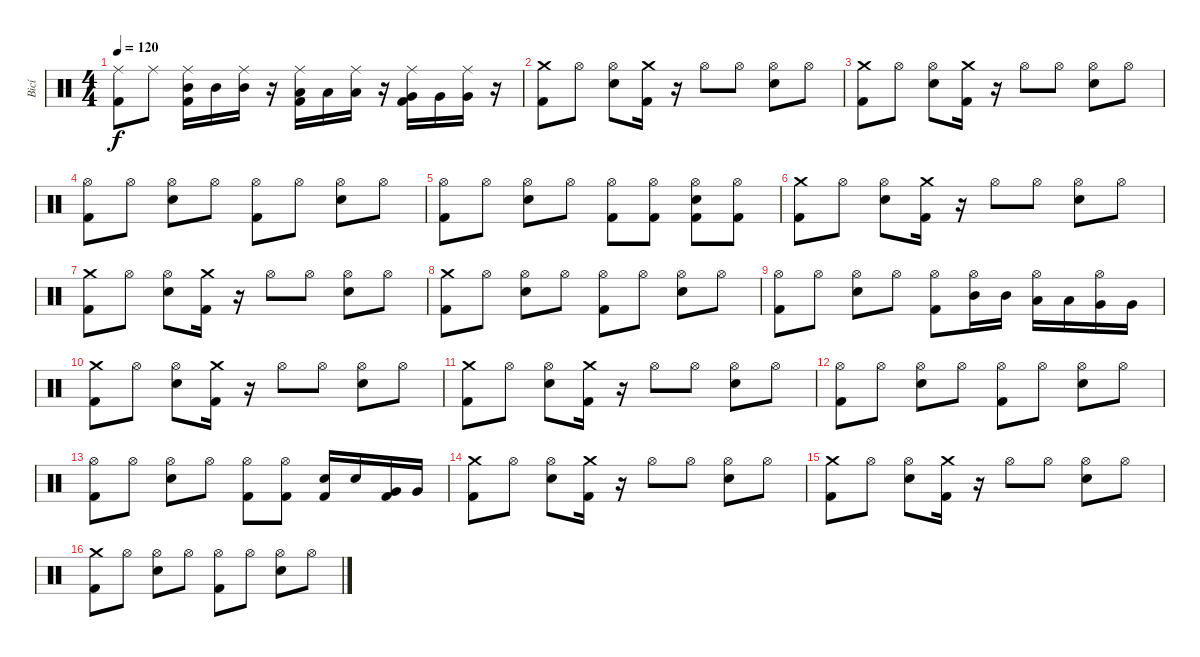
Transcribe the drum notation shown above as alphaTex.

\track ("Bicí" "Bicí") {instrument percussion}
\staff {score}
\articulation defaults
\ts (4 4)
\tempo 120
\clef neutral
\ks c
("Ride (middle)" "Kick (hit) 2").8{dy f} "Ride (middle)".8 ("Mid Tom (hit)" "Ride (middle)" "Kick (hit) 2").16 "Mid Tom (hit)".16 ("Mid Tom (hit)" "Ride (middle)").16 r.16 ("Low Tom (hit)" "Ride (middle)" "Kick (hit) 2").16 "Low Tom (hit)".16 ("Low Tom (hit)" "Ride (middle)").16 r.16 ("Very Low Tom (hit)" "Ride (middle)" "Kick (hit) 2").16 "Very Low Tom (hit)".16 ("Very Low Tom (hit)" "Ride (middle)").16 r.16 |
("Crash medium (hit)" "Kick (hit) 2").8 "Hi-Hat (open)".8 ("Hi-Hat (open)" "Electric Snare (hit)").8 ("Crash medium (hit)" "Kick (hit) 2").16 r.16 "Hi-Hat (open)".8 "Hi-Hat (open)".8 ("Hi-Hat (open)" "Electric Snare (hit)").8 "Hi-Hat (open)".8 |
("Crash medium (hit)" "Kick (hit) 2").8 "Hi-Hat (open)".8 ("Hi-Hat (open)" "Electric Snare (hit)").8 ("Crash medium (hit)" "Kick (hit) 2").16 r.16 "Hi-Hat (open)".8 "Hi-Hat (open)".8 ("Hi-Hat (open)" "Electric Snare (hit)").8 "Hi-Hat (open)".8 |
("Hi-Hat (open)" "Kick (hit) 2").8 "Hi-Hat (open)".8 ("Hi-Hat (open)" "Electric Snare (hit)").8 "Hi-Hat (open)".8 ("Hi-Hat (open)" "Kick (hit) 2").8 "Hi-Hat (open)".8 ("Hi-Hat (open)" "Electric Snare (hit)").8 "Hi-Hat (open)".8 |
("Hi-Hat (open)" "Kick (hit) 2").8 "Hi-Hat (open)".8 ("Hi-Hat (open)" "Electric Snare (hit)").8 "Hi-Hat (open)".8 ("Hi-Hat (open)" "Kick (hit) 2").8 ("Hi-Hat (open)" "Kick (hit) 2").8 ("Hi-Hat (open)" "Electric Snare (hit)" "Kick (hit) 2").8 ("Hi-Hat (open)" "Kick (hit) 2").8 |
("Crash medium (hit)" "Kick (hit) 2").8 "Hi-Hat (open)".8 ("Hi-Hat (open)" "Electric Snare (hit)").8 ("Crash medium (hit)" "Kick (hit) 2").16 r.16 "Hi-Hat (open)".8 "Hi-Hat (open)".8 ("Hi-Hat (open)" "Electric Snare (hit)").8 "Hi-Hat (open)".8 |
("Crash medium (hit)" "Kick (hit) 2").8 "Hi-Hat (open)".8 ("Hi-Hat (open)" "Electric Snare (hit)").8 ("Crash medium (hit)" "Kick (hit) 2").16 r.16 "Hi-Hat (open)".8 "Hi-Hat (open)".8 ("Hi-Hat (open)" "Electric Snare (hit)").8 "Hi-Hat (open)".8 |
("Crash medium (hit)" "Kick (hit) 2").8 "Hi-Hat (open)".8 ("Hi-Hat (open)" "Electric Snare (hit)").8 "Hi-Hat (open)".8 ("Hi-Hat (open)" "Kick (hit) 2").8 "Hi-Hat (open)".8 ("Hi-Hat (open)" "Electric Snare (hit)").8 "Hi-Hat (open)".8 |
("Hi-Hat (open)" "Kick (hit) 2").8 "Hi-Hat (open)".8 ("Hi-Hat (open)" "Electric Snare (hit)").8 "Hi-Hat (open)".8 ("Hi-Hat (open)" "Kick (hit) 2").8 ("Mid Tom (hit)" "Hi-Hat (open)").16 "Mid Tom (hit)".16 ("Low Tom (hit)" "Hi-Hat (open)").16 "Low Tom (hit)".16 ("Very Low Tom (hit)" "Hi-Hat (open)").16 "Very Low Tom (hit)".16 |
("Crash medium (hit)" "Kick (hit) 2").8 "Hi-Hat (open)".8 ("Hi-Hat (open)" "Electric Snare (hit)").8 ("Crash medium (hit)" "Kick (hit) 2").16 r.16 "Hi-Hat (open)".8 "Hi-Hat (open)".8 ("Hi-Hat (open)" "Electric Snare (hit)").8 "Hi-Hat (open)".8 |
("Crash medium (hit)" "Kick (hit) 2").8 "Hi-Hat (open)".8 ("Hi-Hat (open)" "Electric Snare (hit)").8 ("Crash medium (hit)" "Kick (hit) 2").16 r.16 "Hi-Hat (open)".8 "Hi-Hat (open)".8 ("Hi-Hat (open)" "Electric Snare (hit)").8 "Hi-Hat (open)".8 |
("Hi-Hat (open)" "Kick (hit) 2").8 "Hi-Hat (open)".8 ("Hi-Hat (open)" "Electric Snare (hit)").8 "Hi-Hat (open)".8 ("Hi-Hat (open)" "Kick (hit) 2").8 "Hi-Hat (open)".8 ("Hi-Hat (open)" "Electric Snare (hit)").8 "Hi-Hat (open)".8 |
("Hi-Hat (open)" "Kick (hit) 2").8 "Hi-Hat (open)".8 ("Hi-Hat (open)" "Electric Snare (hit)").8 "Hi-Hat (open)".8 ("Hi-Hat (open)" "Kick (hit) 2").8 ("Hi-Hat (open)" "Kick (hit) 2").8 ("Electric Snare (hit)" "Kick (hit) 2").16 "Electric Snare (hit)".16 ("Very Low Tom (hit)" "Kick (hit) 2").16 "Very Low Tom (hit)".16 |
("Crash medium (hit)" "Kick (hit) 2").8 "Hi-Hat (open)".8 ("Hi-Hat (open)" "Electric Snare (hit)").8 ("Crash medium (hit)" "Kick (hit) 2").16 r.16 "Hi-Hat (open)".8 "Hi-Hat (open)".8 ("Hi-Hat (open)" "Electric Snare (hit)").8 "Hi-Hat (open)".8 |
("Crash medium (hit)" "Kick (hit) 2").8 "Hi-Hat (open)".8 ("Hi-Hat (open)" "Electric Snare (hit)").8 ("Crash medium (hit)" "Kick (hit) 2").16 r.16 "Hi-Hat (open)".8 "Hi-Hat (open)".8 ("Hi-Hat (open)" "Electric Snare (hit)").8 "Hi-Hat (open)".8 |
("Crash medium (hit)" "Kick (hit) 2").8 "Hi-Hat (open)".8 ("Hi-Hat (open)" "Electric Snare (hit)").8 "Hi-Hat (open)".8 ("Hi-Hat (open)" "Kick (hit) 2").8 "Hi-Hat (open)".8 ("Hi-Hat (open)" "Electric Snare (hit)").8 "Hi-Hat (open)".8
